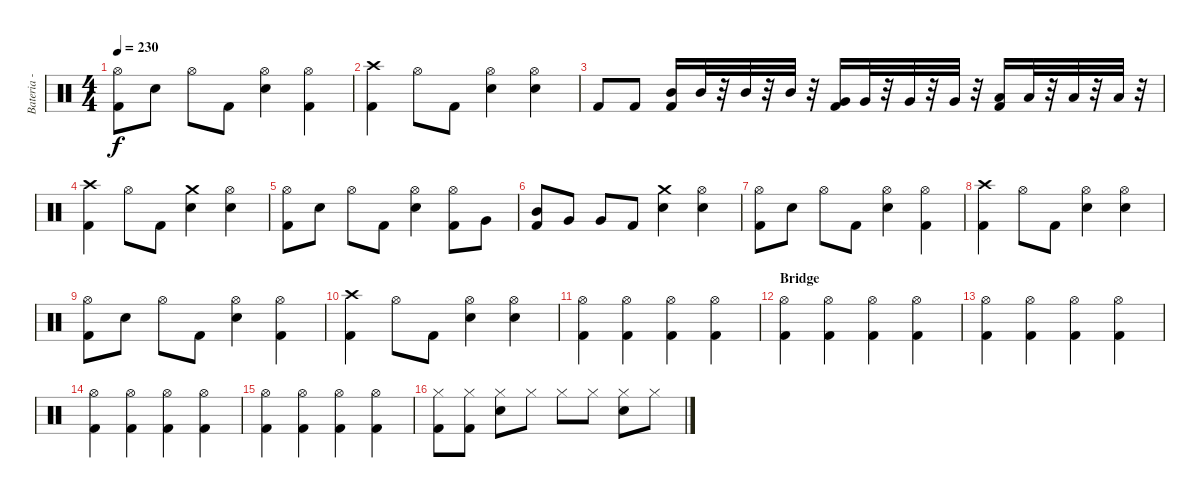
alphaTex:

\track ("Bateria - Larzon" "Bateria - ") {instrument percussion}
\staff {score}
\articulation defaults
\ts (4 4)
\tempo 230
\clef neutral
\ks c
("Hi-Hat (open)" "Kick (hit) 2").8{dy f} "Electric Snare (hit)".8 "Hi-Hat (open)".8 "Kick (hit) 2".8 ("Hi-Hat (open)" "Electric Snare (hit)").4 ("Hi-Hat (open)" "Kick (hit) 2").4 |
("Crash high (hit)" "Kick (hit) 2").4 "Hi-Hat (open)".8 "Kick (hit) 2".8 ("Electric Snare (hit)" "Hi-Hat (open)").4 ("Hi-Hat (open)" "Electric Snare (hit)").4 |
"Kick (hit) 2".8 "Kick (hit) 2".8 ("Mid Tom (hit)" "Kick (hit) 2").16 "Mid Tom (hit)".32 r.32 "Mid Tom (hit)".32 r.32 "Mid Tom (hit)".32 r.32 ("Very Low Tom (hit)" "Kick (hit) 2").16 "Very Low Tom (hit)".32 r.32 "Very Low Tom (hit)".32 r.32 "Very Low Tom (hit)".32 r.32 ("Low Floor Tom (hit)" "Kick (hit) 2").16 "Low Floor Tom (hit)".32 r.32 "Low Floor Tom (hit)".32 r.32 "Low Floor Tom (hit)".32 r.32 |
("Crash high (hit)" "Kick (hit) 2").4 "Hi-Hat (open)".8 "Kick (hit) 2".8 ("Electric Snare (hit)" "Crash medium (hit)").4 ("Hi-Hat (open)" "Electric Snare (hit)").4 |
("Hi-Hat (open)" "Kick (hit) 2").8 "Electric Snare (hit)".8 "Hi-Hat (open)".8 "Kick (hit) 2".8 ("Hi-Hat (open)" "Electric Snare (hit)").4 ("Kick (hit) 2" "Hi-Hat (open)").8 "Very Low Tom (hit)".8 |
("Kick (hit) 2" "Mid Tom (hit)").8 "Very Low Tom (hit)".8 "Very Low Tom (hit)".8 "Kick (hit) 2".8 ("Electric Snare (hit)" "Crash medium (hit)").4 ("Hi-Hat (open)" "Electric Snare (hit)").4 |
("Hi-Hat (open)" "Kick (hit) 2").8 "Electric Snare (hit)".8 "Hi-Hat (open)".8 "Kick (hit) 2".8 ("Hi-Hat (open)" "Electric Snare (hit)").4 ("Hi-Hat (open)" "Kick (hit) 2").4 |
("Crash high (hit)" "Kick (hit) 2").4 "Hi-Hat (open)".8 "Kick (hit) 2".8 ("Electric Snare (hit)" "Hi-Hat (open)").4 ("Hi-Hat (open)" "Electric Snare (hit)").4 |
("Hi-Hat (open)" "Kick (hit) 2").8 "Electric Snare (hit)".8 "Hi-Hat (open)".8 "Kick (hit) 2".8 ("Hi-Hat (open)" "Electric Snare (hit)").4 ("Hi-Hat (open)" "Kick (hit) 2").4 |
("Crash high (hit)" "Kick (hit) 2").4 "Hi-Hat (open)".8 "Kick (hit) 2".8 ("Electric Snare (hit)" "Hi-Hat (open)").4 ("Hi-Hat (open)" "Electric Snare (hit)").4 |
("Kick (hit) 2" "Hi-Hat (open)").4 ("Hi-Hat (open)" "Kick (hit) 2").4 ("Hi-Hat (open)" "Kick (hit) 2").4 ("Hi-Hat (open)" "Kick (hit) 2").4 |
\section ("" "Bridge")
("Kick (hit) 2" "Hi-Hat (open)").4 ("Hi-Hat (open)" "Kick (hit) 2").4 ("Hi-Hat (open)" "Kick (hit) 2").4 ("Hi-Hat (open)" "Kick (hit) 2").4 |
("Kick (hit) 2" "Hi-Hat (open)").4 ("Hi-Hat (open)" "Kick (hit) 2").4 ("Hi-Hat (open)" "Kick (hit) 2").4 ("Hi-Hat (open)" "Kick (hit) 2").4 |
("Kick (hit) 2" "Hi-Hat (open)").4 ("Hi-Hat (open)" "Kick (hit) 2").4 ("Hi-Hat (open)" "Kick (hit) 2").4 ("Hi-Hat (open)" "Kick (hit) 2").4 |
("Kick (hit) 2" "Hi-Hat (open)").4 ("Hi-Hat (open)" "Kick (hit) 2").4 ("Hi-Hat (open)" "Kick (hit) 2").4 ("Hi-Hat (open)" "Kick (hit) 2").4 |
("Hi-Hat (closed)" "Kick (hit) 2").8 ("Hi-Hat (closed)" "Kick (hit) 2").8 ("Hi-Hat (closed)" "Electric Snare (hit)").8 "Hi-Hat (closed)".8 "Hi-Hat (closed)".8 "Hi-Hat (closed)".8 ("Hi-Hat (closed)" "Electric Snare (hit)").8 "Hi-Hat (closed)".8
